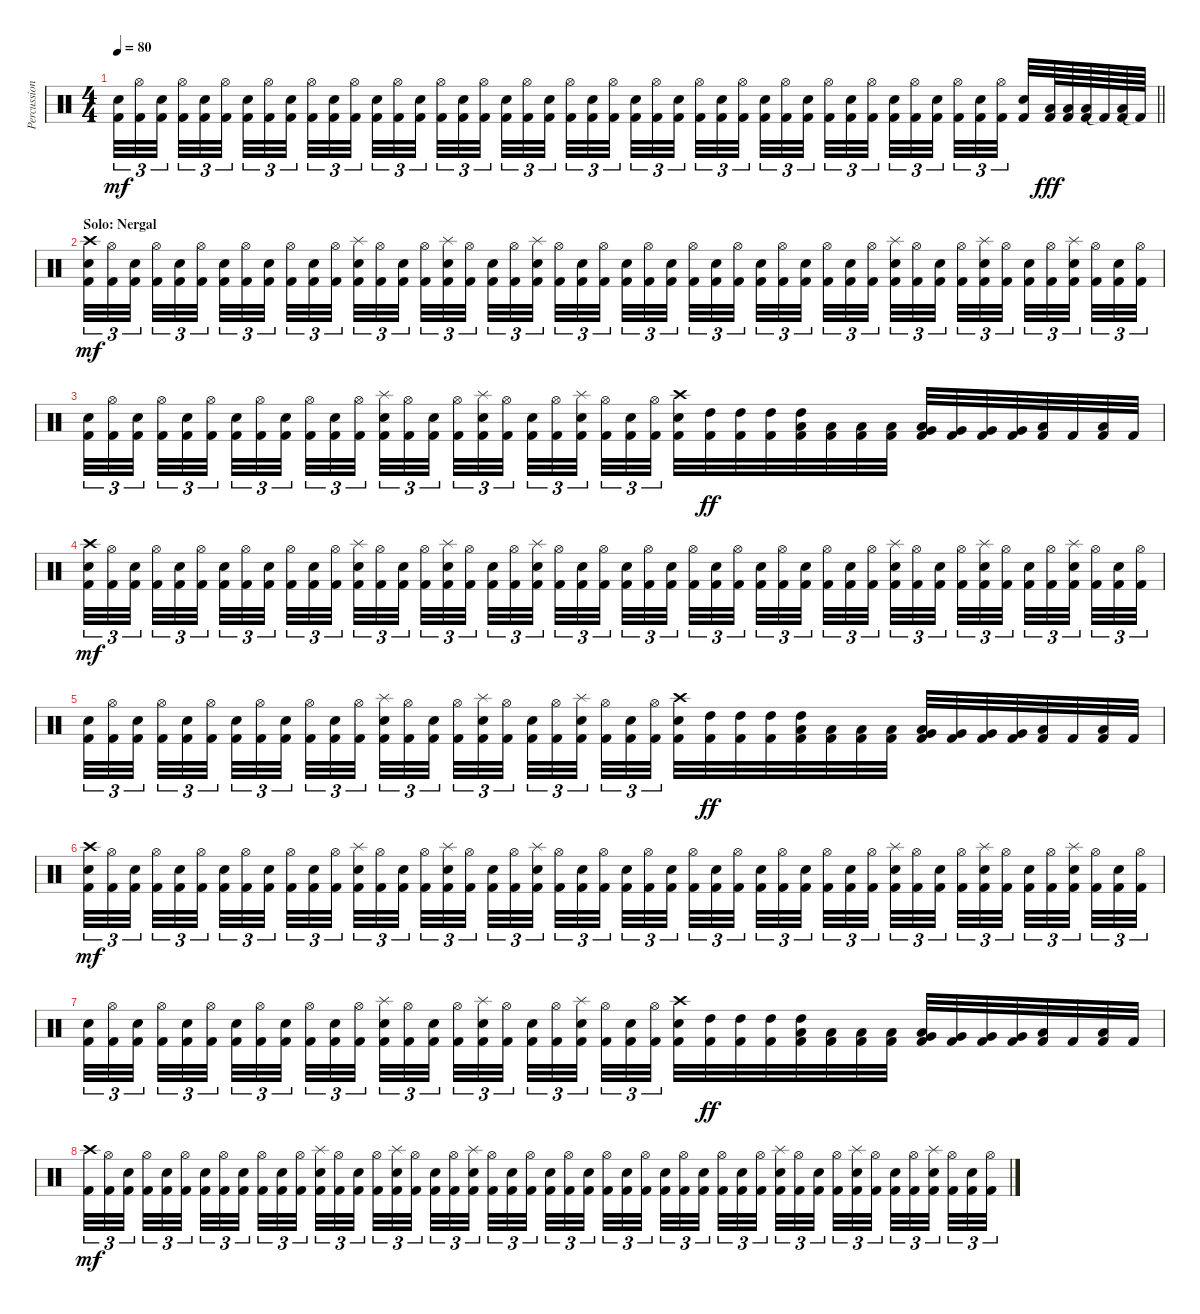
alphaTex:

\track ("Percussion" "Percussion") {instrument percussion}
\staff {score}
\articulation defaults
\ts (4 4)
\tempo 80
\clef neutral
\barLineRight lightlight
\ks c
("Snare (hit) 2" "Kick (hit) 2").32{tu (3 2) dy mf} ("Hi-Hat (open)" "Kick (hit) 2").32{tu (3 2)} ("Snare (hit) 2" "Kick (hit) 2").32{tu (3 2) beam splitsecondary} ("Hi-Hat (open)" "Kick (hit) 2").32{tu (3 2)} ("Snare (hit) 2" "Kick (hit) 2").32{tu (3 2)} ("Hi-Hat (open)" "Kick (hit) 2").32{tu (3 2) beam splitsecondary} ("Snare (hit) 2" "Kick (hit) 2").32{tu (3 2)} ("Hi-Hat (open)" "Kick (hit) 2").32{tu (3 2)} ("Snare (hit) 2" "Kick (hit) 2").32{tu (3 2) beam splitsecondary} ("Hi-Hat (open)" "Kick (hit) 2").32{tu (3 2)} ("Snare (hit) 2" "Kick (hit) 2").32{tu (3 2)} ("Hi-Hat (open)" "Kick (hit) 2").32{tu (3 2)} ("Snare (hit) 2" "Kick (hit) 2").32{tu (3 2)} ("Hi-Hat (open)" "Kick (hit) 2").32{tu (3 2)} ("Snare (hit) 2" "Kick (hit) 2").32{tu (3 2) beam splitsecondary} ("Hi-Hat (open)" "Kick (hit) 2").32{tu (3 2)} ("Snare (hit) 2" "Kick (hit) 2").32{tu (3 2)} ("Hi-Hat (open)" "Kick (hit) 2").32{tu (3 2) beam splitsecondary} ("Snare (hit) 2" "Kick (hit) 2").32{tu (3 2)} ("Hi-Hat (open)" "Kick (hit) 2").32{tu (3 2)} ("Snare (hit) 2" "Kick (hit) 2").32{tu (3 2) beam splitsecondary} ("Hi-Hat (open)" "Kick (hit) 2").32{tu (3 2)} ("Snare (hit) 2" "Kick (hit) 2").32{tu (3 2)} ("Hi-Hat (open)" "Kick (hit) 2").32{tu (3 2)} ("Snare (hit) 2" "Kick (hit) 2").32{tu (3 2)} ("Hi-Hat (open)" "Kick (hit) 2").32{tu (3 2)} ("Snare (hit) 2" "Kick (hit) 2").32{tu (3 2) beam splitsecondary} ("Hi-Hat (open)" "Kick (hit) 2").32{tu (3 2)} ("Snare (hit) 2" "Kick (hit) 2").32{tu (3 2)} ("Hi-Hat (open)" "Kick (hit) 2").32{tu (3 2) beam splitsecondary} ("Snare (hit) 2" "Kick (hit) 2").32{tu (3 2)} ("Hi-Hat (open)" "Kick (hit) 2").32{tu (3 2)} ("Snare (hit) 2" "Kick (hit) 2").32{tu (3 2) beam splitsecondary} ("Hi-Hat (open)" "Kick (hit) 2").32{tu (3 2)} ("Snare (hit) 2" "Kick (hit) 2").32{tu (3 2)} ("Hi-Hat (open)" "Kick (hit) 2").32{tu (3 2)} ("Snare (hit) 2" "Kick (hit) 2").32{tu (3 2)} ("Hi-Hat (open)" "Kick (hit) 2").32{tu (3 2)} ("Snare (hit) 2" "Kick (hit) 2").32{tu (3 2) beam splitsecondary} ("Hi-Hat (open)" "Kick (hit) 2").32{tu (3 2)} ("Snare (hit) 2" "Kick (hit) 2").32{tu (3 2)} ("Hi-Hat (open)" "Kick (hit) 2").32{tu (3 2) beam splitsecondary} ("Snare (hit) 2" "Kick (hit) 2").32 ("Low Floor Tom (hit)" "Kick (hit) 2").64{dy fff} ("Low Floor Tom (hit)" "Kick (hit) 2").64 ("Low Floor Tom (hit)" "Kick (hit) 2").64 "Kick (hit) 2"{t}.64 ("Low Tom (hit)" "Kick (hit) 2").64 "Kick (hit) 2"{t}.64 |
\section ("" "Solo: Nergal")
("Crash high (hit)" "Snare (hit) 2" "Kick (hit) 2").32{tu (3 2) dy mf} ("Hi-Hat (open)" "Kick (hit) 2").32{tu (3 2)} ("Snare (hit) 2" "Kick (hit) 2").32{tu (3 2) beam splitsecondary} ("Hi-Hat (open)" "Kick (hit) 2").32{tu (3 2)} ("Snare (hit) 2" "Kick (hit) 2").32{tu (3 2)} ("Hi-Hat (open)" "Kick (hit) 2").32{tu (3 2) beam splitsecondary} ("Snare (hit) 2" "Kick (hit) 2").32{tu (3 2)} ("Hi-Hat (open)" "Kick (hit) 2").32{tu (3 2)} ("Snare (hit) 2" "Kick (hit) 2").32{tu (3 2) beam splitsecondary} ("Hi-Hat (open)" "Kick (hit) 2").32{tu (3 2)} ("Snare (hit) 2" "Kick (hit) 2").32{tu (3 2)} ("Hi-Hat (open)" "Kick (hit) 2").32{tu (3 2)} ("Splash (hit)" "Snare (hit) 2" "Kick (hit) 2").32{tu (3 2)} ("Hi-Hat (open)" "Kick (hit) 2").32{tu (3 2)} ("Snare (hit) 2" "Kick (hit) 2").32{tu (3 2) beam splitsecondary} ("Hi-Hat (open)" "Kick (hit) 2").32{tu (3 2)} ("Splash (hit)" "Snare (hit) 2" "Kick (hit) 2").32{tu (3 2)} ("Hi-Hat (open)" "Kick (hit) 2").32{tu (3 2) beam splitsecondary} ("Snare (hit) 2" "Kick (hit) 2").32{tu (3 2)} ("Hi-Hat (open)" "Kick (hit) 2").32{tu (3 2)} ("Splash (hit)" "Snare (hit) 2" "Kick (hit) 2").32{tu (3 2) beam splitsecondary} ("Hi-Hat (open)" "Kick (hit) 2").32{tu (3 2)} ("Snare (hit) 2" "Kick (hit) 2").32{tu (3 2)} ("Hi-Hat (open)" "Kick (hit) 2").32{tu (3 2)} ("Snare (hit) 2" "Kick (hit) 2").32{tu (3 2)} ("Hi-Hat (open)" "Kick (hit) 2").32{tu (3 2)} ("Snare (hit) 2" "Kick (hit) 2").32{tu (3 2) beam splitsecondary} ("Hi-Hat (open)" "Kick (hit) 2").32{tu (3 2)} ("Snare (hit) 2" "Kick (hit) 2").32{tu (3 2)} ("Hi-Hat (open)" "Kick (hit) 2").32{tu (3 2) beam splitsecondary} ("Snare (hit) 2" "Kick (hit) 2").32{tu (3 2)} ("Hi-Hat (open)" "Kick (hit) 2").32{tu (3 2)} ("Snare (hit) 2" "Kick (hit) 2").32{tu (3 2) beam splitsecondary} ("Hi-Hat (open)" "Kick (hit) 2").32{tu (3 2)} ("Snare (hit) 2" "Kick (hit) 2").32{tu (3 2)} ("Hi-Hat (open)" "Kick (hit) 2").32{tu (3 2)} ("Splash (hit)" "Snare (hit) 2" "Kick (hit) 2").32{tu (3 2)} ("Hi-Hat (open)" "Kick (hit) 2").32{tu (3 2)} ("Snare (hit) 2" "Kick (hit) 2").32{tu (3 2) beam splitsecondary} ("Hi-Hat (open)" "Kick (hit) 2").32{tu (3 2)} ("Splash (hit)" "Snare (hit) 2" "Kick (hit) 2").32{tu (3 2)} ("Hi-Hat (open)" "Kick (hit) 2").32{tu (3 2) beam splitsecondary} ("Snare (hit) 2" "Kick (hit) 2").32{tu (3 2)} ("Hi-Hat (open)" "Kick (hit) 2").32{tu (3 2)} ("Splash (hit)" "Snare (hit) 2" "Kick (hit) 2").32{tu (3 2) beam splitsecondary} ("Hi-Hat (open)" "Kick (hit) 2").32{tu (3 2)} ("Snare (hit) 2" "Kick (hit) 2").32{tu (3 2)} ("Hi-Hat (open)" "Kick (hit) 2").32{tu (3 2)} |
("Snare (hit) 2" "Kick (hit) 2").32{tu (3 2)} ("Hi-Hat (open)" "Kick (hit) 2").32{tu (3 2)} ("Snare (hit) 2" "Kick (hit) 2").32{tu (3 2) beam splitsecondary} ("Hi-Hat (open)" "Kick (hit) 2").32{tu (3 2)} ("Snare (hit) 2" "Kick (hit) 2").32{tu (3 2)} ("Hi-Hat (open)" "Kick (hit) 2").32{tu (3 2) beam splitsecondary} ("Snare (hit) 2" "Kick (hit) 2").32{tu (3 2)} ("Hi-Hat (open)" "Kick (hit) 2").32{tu (3 2)} ("Snare (hit) 2" "Kick (hit) 2").32{tu (3 2) beam splitsecondary} ("Hi-Hat (open)" "Kick (hit) 2").32{tu (3 2)} ("Snare (hit) 2" "Kick (hit) 2").32{tu (3 2)} ("Hi-Hat (open)" "Kick (hit) 2").32{tu (3 2)} ("Splash (hit)" "Snare (hit) 2" "Kick (hit) 2").32{tu (3 2)} ("Hi-Hat (open)" "Kick (hit) 2").32{tu (3 2)} ("Snare (hit) 2" "Kick (hit) 2").32{tu (3 2) beam splitsecondary} ("Hi-Hat (open)" "Kick (hit) 2").32{tu (3 2)} ("Splash (hit)" "Snare (hit) 2" "Kick (hit) 2").32{tu (3 2)} ("Hi-Hat (open)" "Kick (hit) 2").32{tu (3 2) beam splitsecondary} ("Snare (hit) 2" "Kick (hit) 2").32{tu (3 2)} ("Hi-Hat (open)" "Kick (hit) 2").32{tu (3 2)} ("Splash (hit)" "Snare (hit) 2" "Kick (hit) 2").32{tu (3 2) beam splitsecondary} ("Hi-Hat (open)" "Kick (hit) 2").32{tu (3 2)} ("Snare (hit) 2" "Kick (hit) 2").32{tu (3 2)} ("Hi-Hat (open)" "Kick (hit) 2").32{tu (3 2)} ("Crash high (hit)" "Snare (hit) 2" "Kick (hit) 2").32 ("High Tom (hit)" "Kick (hit) 2").32{dy ff} ("High Tom (hit)" "Kick (hit) 2").32 ("High Tom (hit)" "Kick (hit) 2").32 ("High Tom (hit)" "Low Tom (hit)" "Kick (hit) 2").32 ("Low Tom (hit)" "Kick (hit) 2").32 ("Low Tom (hit)" "Kick (hit) 2").32 ("Low Tom (hit)" "Kick (hit) 2").32 ("Low Tom (hit)" "Very Low Tom (hit)" "Kick (hit) 2").32 ("Very Low Tom (hit)" "Kick (hit) 2").32 ("Very Low Tom (hit)" "Kick (hit) 2").32 ("Very Low Tom (hit)" "Kick (hit) 2").32 ("Low Floor Tom (hit)" "Kick (hit) 2").32 "Kick (hit) 2".32 ("Low Floor Tom (hit)" "Kick (hit) 2").32 "Kick (hit) 2".32 |
("Crash high (hit)" "Snare (hit) 2" "Kick (hit) 2").32{tu (3 2) dy mf} ("Hi-Hat (open)" "Kick (hit) 2").32{tu (3 2)} ("Snare (hit) 2" "Kick (hit) 2").32{tu (3 2) beam splitsecondary} ("Hi-Hat (open)" "Kick (hit) 2").32{tu (3 2)} ("Snare (hit) 2" "Kick (hit) 2").32{tu (3 2)} ("Hi-Hat (open)" "Kick (hit) 2").32{tu (3 2) beam splitsecondary} ("Snare (hit) 2" "Kick (hit) 2").32{tu (3 2)} ("Hi-Hat (open)" "Kick (hit) 2").32{tu (3 2)} ("Snare (hit) 2" "Kick (hit) 2").32{tu (3 2) beam splitsecondary} ("Hi-Hat (open)" "Kick (hit) 2").32{tu (3 2)} ("Snare (hit) 2" "Kick (hit) 2").32{tu (3 2)} ("Hi-Hat (open)" "Kick (hit) 2").32{tu (3 2)} ("Splash (hit)" "Snare (hit) 2" "Kick (hit) 2").32{tu (3 2)} ("Hi-Hat (open)" "Kick (hit) 2").32{tu (3 2)} ("Snare (hit) 2" "Kick (hit) 2").32{tu (3 2) beam splitsecondary} ("Hi-Hat (open)" "Kick (hit) 2").32{tu (3 2)} ("Splash (hit)" "Snare (hit) 2" "Kick (hit) 2").32{tu (3 2)} ("Hi-Hat (open)" "Kick (hit) 2").32{tu (3 2) beam splitsecondary} ("Snare (hit) 2" "Kick (hit) 2").32{tu (3 2)} ("Hi-Hat (open)" "Kick (hit) 2").32{tu (3 2)} ("Splash (hit)" "Snare (hit) 2" "Kick (hit) 2").32{tu (3 2) beam splitsecondary} ("Hi-Hat (open)" "Kick (hit) 2").32{tu (3 2)} ("Snare (hit) 2" "Kick (hit) 2").32{tu (3 2)} ("Hi-Hat (open)" "Kick (hit) 2").32{tu (3 2)} ("Snare (hit) 2" "Kick (hit) 2").32{tu (3 2)} ("Hi-Hat (open)" "Kick (hit) 2").32{tu (3 2)} ("Snare (hit) 2" "Kick (hit) 2").32{tu (3 2) beam splitsecondary} ("Hi-Hat (open)" "Kick (hit) 2").32{tu (3 2)} ("Snare (hit) 2" "Kick (hit) 2").32{tu (3 2)} ("Hi-Hat (open)" "Kick (hit) 2").32{tu (3 2) beam splitsecondary} ("Snare (hit) 2" "Kick (hit) 2").32{tu (3 2)} ("Hi-Hat (open)" "Kick (hit) 2").32{tu (3 2)} ("Snare (hit) 2" "Kick (hit) 2").32{tu (3 2) beam splitsecondary} ("Hi-Hat (open)" "Kick (hit) 2").32{tu (3 2)} ("Snare (hit) 2" "Kick (hit) 2").32{tu (3 2)} ("Hi-Hat (open)" "Kick (hit) 2").32{tu (3 2)} ("Splash (hit)" "Snare (hit) 2" "Kick (hit) 2").32{tu (3 2)} ("Hi-Hat (open)" "Kick (hit) 2").32{tu (3 2)} ("Snare (hit) 2" "Kick (hit) 2").32{tu (3 2) beam splitsecondary} ("Hi-Hat (open)" "Kick (hit) 2").32{tu (3 2)} ("Splash (hit)" "Snare (hit) 2" "Kick (hit) 2").32{tu (3 2)} ("Hi-Hat (open)" "Kick (hit) 2").32{tu (3 2) beam splitsecondary} ("Snare (hit) 2" "Kick (hit) 2").32{tu (3 2)} ("Hi-Hat (open)" "Kick (hit) 2").32{tu (3 2)} ("Splash (hit)" "Snare (hit) 2" "Kick (hit) 2").32{tu (3 2) beam splitsecondary} ("Hi-Hat (open)" "Kick (hit) 2").32{tu (3 2)} ("Snare (hit) 2" "Kick (hit) 2").32{tu (3 2)} ("Hi-Hat (open)" "Kick (hit) 2").32{tu (3 2)} |
("Snare (hit) 2" "Kick (hit) 2").32{tu (3 2)} ("Hi-Hat (open)" "Kick (hit) 2").32{tu (3 2)} ("Snare (hit) 2" "Kick (hit) 2").32{tu (3 2) beam splitsecondary} ("Hi-Hat (open)" "Kick (hit) 2").32{tu (3 2)} ("Snare (hit) 2" "Kick (hit) 2").32{tu (3 2)} ("Hi-Hat (open)" "Kick (hit) 2").32{tu (3 2) beam splitsecondary} ("Snare (hit) 2" "Kick (hit) 2").32{tu (3 2)} ("Hi-Hat (open)" "Kick (hit) 2").32{tu (3 2)} ("Snare (hit) 2" "Kick (hit) 2").32{tu (3 2) beam splitsecondary} ("Hi-Hat (open)" "Kick (hit) 2").32{tu (3 2)} ("Snare (hit) 2" "Kick (hit) 2").32{tu (3 2)} ("Hi-Hat (open)" "Kick (hit) 2").32{tu (3 2)} ("Splash (hit)" "Snare (hit) 2" "Kick (hit) 2").32{tu (3 2)} ("Hi-Hat (open)" "Kick (hit) 2").32{tu (3 2)} ("Snare (hit) 2" "Kick (hit) 2").32{tu (3 2) beam splitsecondary} ("Hi-Hat (open)" "Kick (hit) 2").32{tu (3 2)} ("Splash (hit)" "Snare (hit) 2" "Kick (hit) 2").32{tu (3 2)} ("Hi-Hat (open)" "Kick (hit) 2").32{tu (3 2) beam splitsecondary} ("Snare (hit) 2" "Kick (hit) 2").32{tu (3 2)} ("Hi-Hat (open)" "Kick (hit) 2").32{tu (3 2)} ("Splash (hit)" "Snare (hit) 2" "Kick (hit) 2").32{tu (3 2) beam splitsecondary} ("Hi-Hat (open)" "Kick (hit) 2").32{tu (3 2)} ("Snare (hit) 2" "Kick (hit) 2").32{tu (3 2)} ("Hi-Hat (open)" "Kick (hit) 2").32{tu (3 2)} ("Crash high (hit)" "Snare (hit) 2" "Kick (hit) 2").32 ("High Tom (hit)" "Kick (hit) 2").32{dy ff} ("High Tom (hit)" "Kick (hit) 2").32 ("High Tom (hit)" "Kick (hit) 2").32 ("High Tom (hit)" "Low Tom (hit)" "Kick (hit) 2").32 ("Low Tom (hit)" "Kick (hit) 2").32 ("Low Tom (hit)" "Kick (hit) 2").32 ("Low Tom (hit)" "Kick (hit) 2").32 ("Low Tom (hit)" "Very Low Tom (hit)" "Kick (hit) 2").32 ("Very Low Tom (hit)" "Kick (hit) 2").32 ("Very Low Tom (hit)" "Kick (hit) 2").32 ("Very Low Tom (hit)" "Kick (hit) 2").32 ("Low Floor Tom (hit)" "Kick (hit) 2").32 "Kick (hit) 2".32 ("Low Floor Tom (hit)" "Kick (hit) 2").32 "Kick (hit) 2".32 |
("Crash high (hit)" "Snare (hit) 2" "Kick (hit) 2").32{tu (3 2) dy mf} ("Hi-Hat (open)" "Kick (hit) 2").32{tu (3 2)} ("Snare (hit) 2" "Kick (hit) 2").32{tu (3 2) beam splitsecondary} ("Hi-Hat (open)" "Kick (hit) 2").32{tu (3 2)} ("Snare (hit) 2" "Kick (hit) 2").32{tu (3 2)} ("Hi-Hat (open)" "Kick (hit) 2").32{tu (3 2) beam splitsecondary} ("Snare (hit) 2" "Kick (hit) 2").32{tu (3 2)} ("Hi-Hat (open)" "Kick (hit) 2").32{tu (3 2)} ("Snare (hit) 2" "Kick (hit) 2").32{tu (3 2) beam splitsecondary} ("Hi-Hat (open)" "Kick (hit) 2").32{tu (3 2)} ("Snare (hit) 2" "Kick (hit) 2").32{tu (3 2)} ("Hi-Hat (open)" "Kick (hit) 2").32{tu (3 2)} ("Splash (hit)" "Snare (hit) 2" "Kick (hit) 2").32{tu (3 2)} ("Hi-Hat (open)" "Kick (hit) 2").32{tu (3 2)} ("Snare (hit) 2" "Kick (hit) 2").32{tu (3 2) beam splitsecondary} ("Hi-Hat (open)" "Kick (hit) 2").32{tu (3 2)} ("Splash (hit)" "Snare (hit) 2" "Kick (hit) 2").32{tu (3 2)} ("Hi-Hat (open)" "Kick (hit) 2").32{tu (3 2) beam splitsecondary} ("Snare (hit) 2" "Kick (hit) 2").32{tu (3 2)} ("Hi-Hat (open)" "Kick (hit) 2").32{tu (3 2)} ("Splash (hit)" "Snare (hit) 2" "Kick (hit) 2").32{tu (3 2) beam splitsecondary} ("Hi-Hat (open)" "Kick (hit) 2").32{tu (3 2)} ("Snare (hit) 2" "Kick (hit) 2").32{tu (3 2)} ("Hi-Hat (open)" "Kick (hit) 2").32{tu (3 2)} ("Snare (hit) 2" "Kick (hit) 2").32{tu (3 2)} ("Hi-Hat (open)" "Kick (hit) 2").32{tu (3 2)} ("Snare (hit) 2" "Kick (hit) 2").32{tu (3 2) beam splitsecondary} ("Hi-Hat (open)" "Kick (hit) 2").32{tu (3 2)} ("Snare (hit) 2" "Kick (hit) 2").32{tu (3 2)} ("Hi-Hat (open)" "Kick (hit) 2").32{tu (3 2) beam splitsecondary} ("Snare (hit) 2" "Kick (hit) 2").32{tu (3 2)} ("Hi-Hat (open)" "Kick (hit) 2").32{tu (3 2)} ("Snare (hit) 2" "Kick (hit) 2").32{tu (3 2) beam splitsecondary} ("Hi-Hat (open)" "Kick (hit) 2").32{tu (3 2)} ("Snare (hit) 2" "Kick (hit) 2").32{tu (3 2)} ("Hi-Hat (open)" "Kick (hit) 2").32{tu (3 2)} ("Splash (hit)" "Snare (hit) 2" "Kick (hit) 2").32{tu (3 2)} ("Hi-Hat (open)" "Kick (hit) 2").32{tu (3 2)} ("Snare (hit) 2" "Kick (hit) 2").32{tu (3 2) beam splitsecondary} ("Hi-Hat (open)" "Kick (hit) 2").32{tu (3 2)} ("Splash (hit)" "Snare (hit) 2" "Kick (hit) 2").32{tu (3 2)} ("Hi-Hat (open)" "Kick (hit) 2").32{tu (3 2) beam splitsecondary} ("Snare (hit) 2" "Kick (hit) 2").32{tu (3 2)} ("Hi-Hat (open)" "Kick (hit) 2").32{tu (3 2)} ("Splash (hit)" "Snare (hit) 2" "Kick (hit) 2").32{tu (3 2) beam splitsecondary} ("Hi-Hat (open)" "Kick (hit) 2").32{tu (3 2)} ("Snare (hit) 2" "Kick (hit) 2").32{tu (3 2)} ("Hi-Hat (open)" "Kick (hit) 2").32{tu (3 2)} |
("Snare (hit) 2" "Kick (hit) 2").32{tu (3 2)} ("Hi-Hat (open)" "Kick (hit) 2").32{tu (3 2)} ("Snare (hit) 2" "Kick (hit) 2").32{tu (3 2) beam splitsecondary} ("Hi-Hat (open)" "Kick (hit) 2").32{tu (3 2)} ("Snare (hit) 2" "Kick (hit) 2").32{tu (3 2)} ("Hi-Hat (open)" "Kick (hit) 2").32{tu (3 2) beam splitsecondary} ("Snare (hit) 2" "Kick (hit) 2").32{tu (3 2)} ("Hi-Hat (open)" "Kick (hit) 2").32{tu (3 2)} ("Snare (hit) 2" "Kick (hit) 2").32{tu (3 2) beam splitsecondary} ("Hi-Hat (open)" "Kick (hit) 2").32{tu (3 2)} ("Snare (hit) 2" "Kick (hit) 2").32{tu (3 2)} ("Hi-Hat (open)" "Kick (hit) 2").32{tu (3 2)} ("Splash (hit)" "Snare (hit) 2" "Kick (hit) 2").32{tu (3 2)} ("Hi-Hat (open)" "Kick (hit) 2").32{tu (3 2)} ("Snare (hit) 2" "Kick (hit) 2").32{tu (3 2) beam splitsecondary} ("Hi-Hat (open)" "Kick (hit) 2").32{tu (3 2)} ("Splash (hit)" "Snare (hit) 2" "Kick (hit) 2").32{tu (3 2)} ("Hi-Hat (open)" "Kick (hit) 2").32{tu (3 2) beam splitsecondary} ("Snare (hit) 2" "Kick (hit) 2").32{tu (3 2)} ("Hi-Hat (open)" "Kick (hit) 2").32{tu (3 2)} ("Splash (hit)" "Snare (hit) 2" "Kick (hit) 2").32{tu (3 2) beam splitsecondary} ("Hi-Hat (open)" "Kick (hit) 2").32{tu (3 2)} ("Snare (hit) 2" "Kick (hit) 2").32{tu (3 2)} ("Hi-Hat (open)" "Kick (hit) 2").32{tu (3 2)} ("Crash high (hit)" "Snare (hit) 2" "Kick (hit) 2").32 ("High Tom (hit)" "Kick (hit) 2").32{dy ff} ("High Tom (hit)" "Kick (hit) 2").32 ("High Tom (hit)" "Kick (hit) 2").32 ("High Tom (hit)" "Low Tom (hit)" "Kick (hit) 2").32 ("Low Tom (hit)" "Kick (hit) 2").32 ("Low Tom (hit)" "Kick (hit) 2").32 ("Low Tom (hit)" "Kick (hit) 2").32 ("Low Tom (hit)" "Very Low Tom (hit)" "Kick (hit) 2").32 ("Very Low Tom (hit)" "Kick (hit) 2").32 ("Very Low Tom (hit)" "Kick (hit) 2").32 ("Very Low Tom (hit)" "Kick (hit) 2").32 ("Low Floor Tom (hit)" "Kick (hit) 2").32 "Kick (hit) 2".32 ("Low Floor Tom (hit)" "Kick (hit) 2").32 "Kick (hit) 2".32 |
("Crash high (hit)" "Kick (hit) 2").32{tu (3 2) dy mf} ("Hi-Hat (open)" "Kick (hit) 2").32{tu (3 2)} ("Snare (hit) 2" "Kick (hit) 2").32{tu (3 2) beam splitsecondary} ("Hi-Hat (open)" "Kick (hit) 2").32{tu (3 2)} ("Snare (hit) 2" "Kick (hit) 2").32{tu (3 2)} ("Hi-Hat (open)" "Kick (hit) 2").32{tu (3 2) beam splitsecondary} ("Snare (hit) 2" "Kick (hit) 2").32{tu (3 2)} ("Hi-Hat (open)" "Kick (hit) 2").32{tu (3 2)} ("Snare (hit) 2" "Kick (hit) 2").32{tu (3 2) beam splitsecondary} ("Hi-Hat (open)" "Kick (hit) 2").32{tu (3 2)} ("Snare (hit) 2" "Kick (hit) 2").32{tu (3 2)} ("Hi-Hat (open)" "Kick (hit) 2").32{tu (3 2)} ("Splash (hit)" "Snare (hit) 2" "Kick (hit) 2").32{tu (3 2)} ("Hi-Hat (open)" "Kick (hit) 2").32{tu (3 2)} ("Snare (hit) 2" "Kick (hit) 2").32{tu (3 2) beam splitsecondary} ("Hi-Hat (open)" "Kick (hit) 2").32{tu (3 2)} ("Splash (hit)" "Snare (hit) 2" "Kick (hit) 2").32{tu (3 2)} ("Hi-Hat (open)" "Kick (hit) 2").32{tu (3 2) beam splitsecondary} ("Snare (hit) 2" "Kick (hit) 2").32{tu (3 2)} ("Hi-Hat (open)" "Kick (hit) 2").32{tu (3 2)} ("Splash (hit)" "Snare (hit) 2" "Kick (hit) 2").32{tu (3 2) beam splitsecondary} ("Hi-Hat (open)" "Kick (hit) 2").32{tu (3 2)} ("Snare (hit) 2" "Kick (hit) 2").32{tu (3 2)} ("Hi-Hat (open)" "Kick (hit) 2").32{tu (3 2)} ("Snare (hit) 2" "Kick (hit) 2").32{tu (3 2)} ("Hi-Hat (open)" "Kick (hit) 2").32{tu (3 2)} ("Snare (hit) 2" "Kick (hit) 2").32{tu (3 2) beam splitsecondary} ("Hi-Hat (open)" "Kick (hit) 2").32{tu (3 2)} ("Snare (hit) 2" "Kick (hit) 2").32{tu (3 2)} ("Hi-Hat (open)" "Kick (hit) 2").32{tu (3 2) beam splitsecondary} ("Snare (hit) 2" "Kick (hit) 2").32{tu (3 2)} ("Hi-Hat (open)" "Kick (hit) 2").32{tu (3 2)} ("Snare (hit) 2" "Kick (hit) 2").32{tu (3 2) beam splitsecondary} ("Hi-Hat (open)" "Kick (hit) 2").32{tu (3 2)} ("Snare (hit) 2" "Kick (hit) 2").32{tu (3 2)} ("Hi-Hat (open)" "Kick (hit) 2").32{tu (3 2)} ("Splash (hit)" "Snare (hit) 2" "Kick (hit) 2").32{tu (3 2)} ("Hi-Hat (open)" "Kick (hit) 2").32{tu (3 2)} ("Snare (hit) 2" "Kick (hit) 2").32{tu (3 2) beam splitsecondary} ("Hi-Hat (open)" "Kick (hit) 2").32{tu (3 2)} ("Splash (hit)" "Snare (hit) 2" "Kick (hit) 2").32{tu (3 2)} ("Hi-Hat (open)" "Kick (hit) 2").32{tu (3 2) beam splitsecondary} ("Snare (hit) 2" "Kick (hit) 2").32{tu (3 2)} ("Hi-Hat (open)" "Kick (hit) 2").32{tu (3 2)} ("Splash (hit)" "Snare (hit) 2" "Kick (hit) 2").32{tu (3 2) beam splitsecondary} ("Hi-Hat (open)" "Kick (hit) 2").32{tu (3 2)} ("Snare (hit) 2" "Kick (hit) 2").32{tu (3 2)} ("Hi-Hat (open)" "Kick (hit) 2").32{tu (3 2)}
